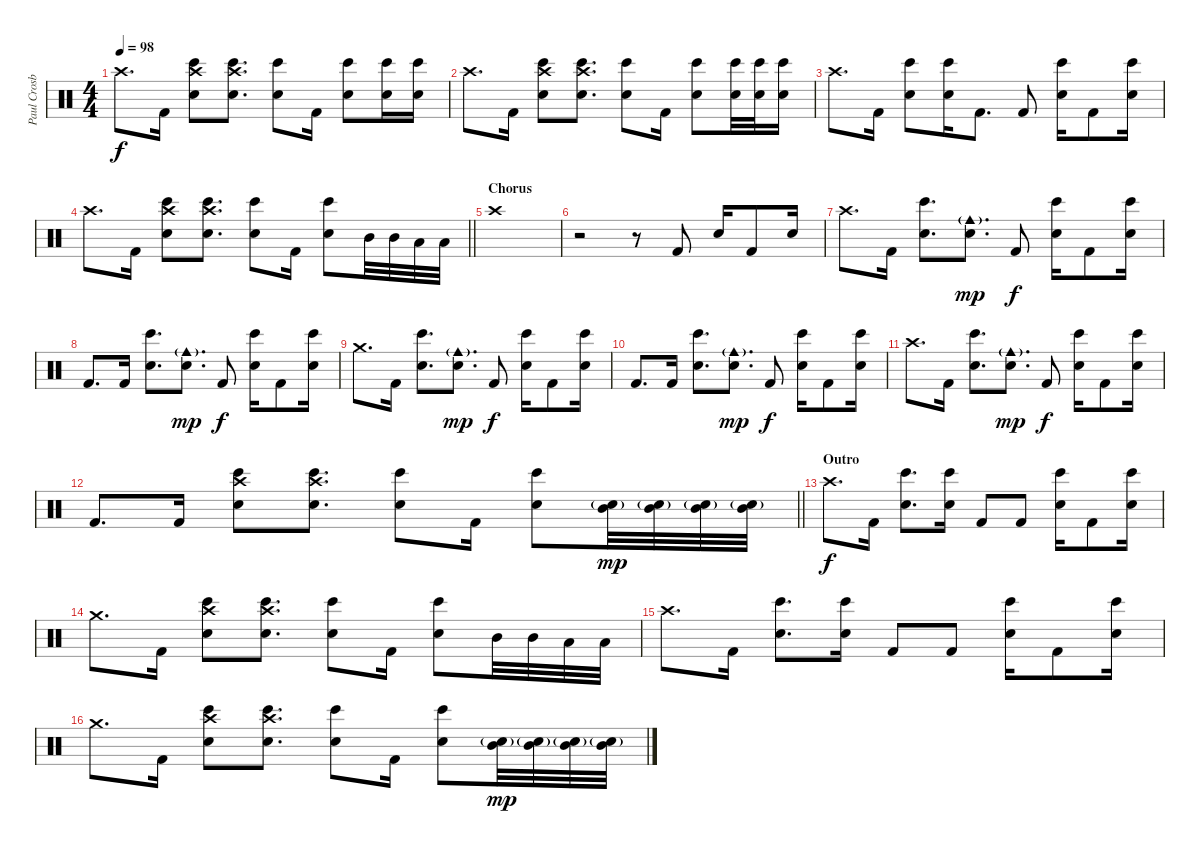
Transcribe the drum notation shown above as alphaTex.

\track ("Paul Crosby (Drums)" "Paul Crosb") {instrument percussion}
\staff {score}
\articulation defaults
\ts (4 4)
\tempo 98
\clef neutral
\ks c "Crash high (hit)".8{d dy f} "Kick (hit) 2".16
("Crash high (hit)" "Electric Snare (hit)" "Bongo High (hit)").8 ("Crash high (hit)" "Electric Snare (hit)" "Bongo High (hit)").8{d} ("Electric Snare (hit)" "Bongo High (hit)").8 "Kick (hit) 2".16 ("Electric Snare (hit)" "Bongo High (hit)").8 ("Electric Snare (hit)" "Bongo High (hit)").16 ("Electric Snare (hit)" "Bongo High (hit)").16 |
"Crash high (hit)".8{d} "Kick (hit) 2".16 ("Crash high (hit)" "Electric Snare (hit)" "Bongo High (hit)").8 ("Crash high (hit)" "Electric Snare (hit)" "Bongo High (hit)").8{d} ("Electric Snare (hit)" "Bongo High (hit)").8 "Kick (hit) 2".16 ("Electric Snare (hit)" "Bongo High (hit)").8 ("Electric Snare (hit)" "Bongo High (hit)").32 ("Electric Snare (hit)" "Bongo High (hit)").32 ("Electric Snare (hit)" "Bongo High (hit)").16 |
"Crash high (hit)".8{d} "Kick (hit) 2".16 ("Electric Snare (hit)" "Bongo High (hit)").8 ("Electric Snare (hit)" "Bongo High (hit)").16 "Kick (hit) 2".8{d} "Kick (hit) 2".8 ("Electric Snare (hit)" "Bongo High (hit)").16 "Kick (hit) 2".8 ("Electric Snare (hit)" "Bongo High (hit)").16 |
\barLineRight lightlight "Crash high (hit)".8{d} "Kick (hit) 2".16
("Crash high (hit)" "Electric Snare (hit)" "Bongo High (hit)").8 ("Crash high (hit)" "Electric Snare (hit)" "Bongo High (hit)").8{d} ("Electric Snare (hit)" "Bongo High (hit)").8 "Kick (hit) 2".16 ("Electric Snare (hit)" "Bongo High (hit)").8 "Mid Tom (hit)".32 "Mid Tom (hit)".32 "Low Tom (hit)".32 "Low Tom (hit)".32 |
\section ("" "Chorus")
"Crash high (hit)".1{volume 14} |
r.2 r.8 "Kick (hit) 2".8 "Electric Snare (hit)".16 "Kick (hit) 2".8 "Electric Snare (hit)".16 |
"Crash high (hit)".8{d} "Kick (hit) 2".16 ("Electric Snare (hit)" "Bongo High (hit)").8{d} ("Electric Snare (hit)" "Cowbell medium (hit)"{g}).8{d dy mp} "Kick (hit) 2".8{dy f} ("Electric Snare (hit)" "Bongo High (hit)").16 "Kick (hit) 2".8 ("Electric Snare (hit)" "Bongo High (hit)").16 |
"Kick (hit) 2".8{d} "Kick (hit) 2".16 ("Electric Snare (hit)" "Bongo High (hit)").8{d} ("Electric Snare (hit)" "Cowbell medium (hit)"{g}).8{d dy mp} "Kick (hit) 2".8{dy f} ("Electric Snare (hit)" "Bongo High (hit)").16 "Kick (hit) 2".8 ("Electric Snare (hit)" "Bongo High (hit)").16 |
"Crash medium (hit)".8{d} "Kick (hit) 2".16 ("Electric Snare (hit)" "Bongo High (hit)").8{d} ("Electric Snare (hit)" "Cowbell medium (hit)"{g}).8{d dy mp} "Kick (hit) 2".8{dy f} ("Electric Snare (hit)" "Bongo High (hit)").16 "Kick (hit) 2".8 ("Electric Snare (hit)" "Bongo High (hit)").16 |
"Kick (hit) 2".8{d} "Kick (hit) 2".16 ("Electric Snare (hit)" "Bongo High (hit)").8{d} ("Electric Snare (hit)" "Cowbell medium (hit)"{g}).8{d dy mp} "Kick (hit) 2".8{dy f} ("Electric Snare (hit)" "Bongo High (hit)").16 "Kick (hit) 2".8 ("Electric Snare (hit)" "Bongo High (hit)").16 |
"Crash high (hit)".8{d} "Kick (hit) 2".16 ("Electric Snare (hit)" "Bongo High (hit)").8{d} ("Electric Snare (hit)" "Cowbell medium (hit)"{g}).8{d dy mp} "Kick (hit) 2".8{dy f} ("Electric Snare (hit)" "Bongo High (hit)").16 "Kick (hit) 2".8 ("Electric Snare (hit)" "Bongo High (hit)").16 |
\barLineRight lightlight "Kick (hit) 2".8{d} "Kick (hit) 2".16
("Crash high (hit)" "Electric Snare (hit)" "Bongo High (hit)").8 ("Crash high (hit)" "Electric Snare (hit)" "Bongo High (hit)").8{d} ("Electric Snare (hit)" "Bongo High (hit)").8 "Kick (hit) 2".16 ("Electric Snare (hit)" "Bongo High (hit)").8 ("Mid Tom (hit)" "Electric Snare (hit)"{g}).32{dy mp} ("Mid Tom (hit)" "Electric Snare (hit)"{g}).32 ("Mid Tom (hit)" "Electric Snare (hit)"{g}).32 ("Mid Tom (hit)" "Electric Snare (hit)"{g}).32 |
\section ("" "Outro")
"Crash high (hit)".8{d dy f} "Kick (hit) 2".16 ("Electric Snare (hit)" "Bongo High (hit)").8{d} ("Electric Snare (hit)" "Bongo High (hit)").16 "Kick (hit) 2".8 "Kick (hit) 2".8 ("Electric Snare (hit)" "Bongo High (hit)").16 "Kick (hit) 2".8 ("Electric Snare (hit)" "Bongo High (hit)").16 |
"Crash medium (hit)".8{d} "Kick (hit) 2".16 ("Crash high (hit)" "Electric Snare (hit)" "Bongo High (hit)").8 ("Crash high (hit)" "Electric Snare (hit)" "Bongo High (hit)").8{d} ("Electric Snare (hit)" "Bongo High (hit)").8 "Kick (hit) 2".16 ("Electric Snare (hit)" "Bongo High (hit)").8 "Mid Tom (hit)".32 "Mid Tom (hit)".32 "Low Tom (hit)".32 "Low Tom (hit)".32 |
"Crash high (hit)".8{d} "Kick (hit) 2".16 ("Electric Snare (hit)" "Bongo High (hit)").8{d} ("Electric Snare (hit)" "Bongo High (hit)").16 "Kick (hit) 2".8 "Kick (hit) 2".8 ("Electric Snare (hit)" "Bongo High (hit)").16 "Kick (hit) 2".8 ("Electric Snare (hit)" "Bongo High (hit)").16 |
"Crash medium (hit)".8{d} "Kick (hit) 2".16 ("Crash high (hit)" "Electric Snare (hit)" "Bongo High (hit)").8 ("Crash high (hit)" "Electric Snare (hit)" "Bongo High (hit)").8{d} ("Electric Snare (hit)" "Bongo High (hit)").8 "Kick (hit) 2".16 ("Electric Snare (hit)" "Bongo High (hit)").8 ("Mid Tom (hit)" "Electric Snare (hit)"{g}).32{dy mp} ("Mid Tom (hit)" "Electric Snare (hit)"{g}).32 ("Mid Tom (hit)" "Electric Snare (hit)"{g}).32 ("Mid Tom (hit)" "Electric Snare (hit)"{g}).32
